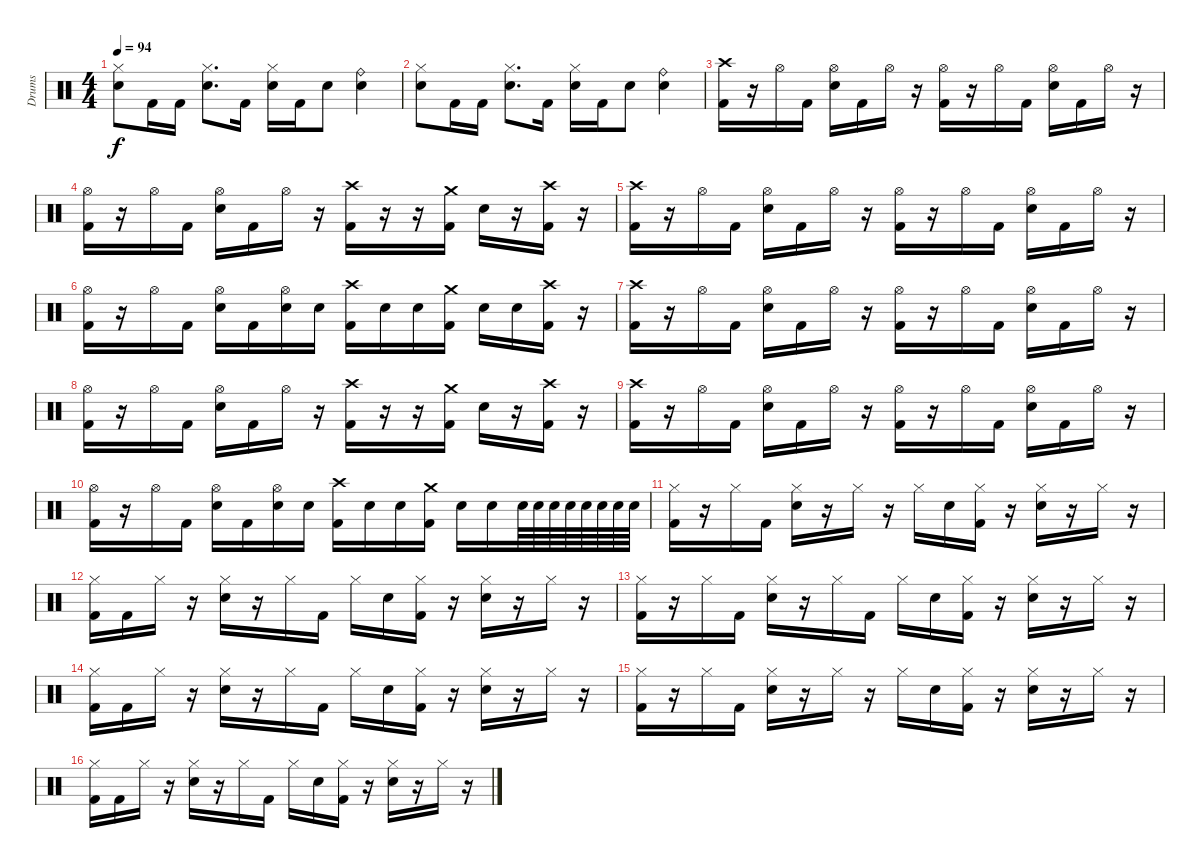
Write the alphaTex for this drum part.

\track ("Drums" "Drums") {instrument percussion}
\staff {score}
\articulation defaults
\ts (4 4)
\tempo 94
\clef neutral
\ks c
("Hi-Hat (closed)" "Snare (hit) 2").8{dy f} "Kick (hit) 2".16{balance 16} "Kick (hit) 2".16 ("Hi-Hat (closed)" "Snare (hit) 2").8{d} "Kick (hit) 2".16 ("Hi-Hat (closed)" "Snare (hit) 2").16 "Kick (hit) 2".16 "Snare (hit) 2".8 ("Ride (bell)" "Snare (hit) 2").4 |
("Hi-Hat (closed)" "Snare (hit) 2").8{balance 0} "Kick (hit) 2".16 "Kick (hit) 2".16 ("Hi-Hat (closed)" "Snare (hit) 2").8{d} "Kick (hit) 2".16 ("Hi-Hat (closed)" "Snare (hit) 2").16 "Kick (hit) 2".16 "Snare (hit) 2".8 ("Ride (bell)" "Snare (hit) 2").4 |
("Crash high (hit)" "Kick (hit) 2").16{balance 8} r.16 "Hi-Hat (open)".16 "Kick (hit) 2".16 ("Hi-Hat (open)" "Snare (hit) 2").16 "Kick (hit) 2".16 "Hi-Hat (open)".16 r.16 ("Hi-Hat (open)" "Kick (hit) 2").16 r.16 "Hi-Hat (open)".16 "Kick (hit) 2".16 ("Hi-Hat (open)" "Snare (hit) 2").16 "Kick (hit) 2".16 "Hi-Hat (open)".16 r.16 |
("Hi-Hat (open)" "Kick (hit) 2").16 r.16 "Hi-Hat (open)".16 "Kick (hit) 2".16 ("Hi-Hat (open)" "Snare (hit) 2").16 "Kick (hit) 2".16 "Hi-Hat (open)".16 r.16 ("Crash high (hit)" "Kick (hit) 2").16 r.16 r.16 ("Crash medium (hit)" "Kick (hit) 2").16 "Snare (hit) 2".16 r.16 ("Crash high (hit)" "Kick (hit) 2").16 r.16 |
("Crash high (hit)" "Kick (hit) 2").16 r.16 "Hi-Hat (open)".16 "Kick (hit) 2".16 ("Hi-Hat (open)" "Snare (hit) 2").16 "Kick (hit) 2".16 "Hi-Hat (open)".16 r.16 ("Hi-Hat (open)" "Kick (hit) 2").16 r.16 "Hi-Hat (open)".16 "Kick (hit) 2".16 ("Hi-Hat (open)" "Snare (hit) 2").16 "Kick (hit) 2".16 "Hi-Hat (open)".16 r.16 |
("Hi-Hat (open)" "Kick (hit) 2").16 r.16 "Hi-Hat (open)".16 "Kick (hit) 2".16 ("Hi-Hat (open)" "Snare (hit) 2").16 "Kick (hit) 2".16 ("Hi-Hat (open)" "Snare (hit) 2").16 "Snare (hit) 2".16 ("Crash high (hit)" "Kick (hit) 2").16 "Snare (hit) 2".16 "Snare (hit) 2".16 ("Crash medium (hit)" "Kick (hit) 2").16 "Snare (hit) 2".16 "Snare (hit) 2".16 ("Crash high (hit)" "Kick (hit) 2").16 r.16 |
("Crash high (hit)" "Kick (hit) 2").16 r.16 "Hi-Hat (open)".16 "Kick (hit) 2".16 ("Hi-Hat (open)" "Snare (hit) 2").16 "Kick (hit) 2".16 "Hi-Hat (open)".16 r.16 ("Hi-Hat (open)" "Kick (hit) 2").16 r.16 "Hi-Hat (open)".16 "Kick (hit) 2".16 ("Hi-Hat (open)" "Snare (hit) 2").16 "Kick (hit) 2".16 "Hi-Hat (open)".16 r.16 |
("Hi-Hat (open)" "Kick (hit) 2").16 r.16 "Hi-Hat (open)".16 "Kick (hit) 2".16 ("Hi-Hat (open)" "Snare (hit) 2").16 "Kick (hit) 2".16 "Hi-Hat (open)".16 r.16 ("Crash high (hit)" "Kick (hit) 2").16 r.16 r.16 ("Crash medium (hit)" "Kick (hit) 2").16 "Snare (hit) 2".16 r.16 ("Crash high (hit)" "Kick (hit) 2").16 r.16 |
("Crash high (hit)" "Kick (hit) 2").16 r.16 "Hi-Hat (open)".16 "Kick (hit) 2".16 ("Hi-Hat (open)" "Snare (hit) 2").16 "Kick (hit) 2".16 "Hi-Hat (open)".16 r.16 ("Hi-Hat (open)" "Kick (hit) 2").16 r.16 "Hi-Hat (open)".16 "Kick (hit) 2".16 ("Hi-Hat (open)" "Snare (hit) 2").16 "Kick (hit) 2".16 "Hi-Hat (open)".16 r.16 |
("Hi-Hat (open)" "Kick (hit) 2").16 r.16 "Hi-Hat (open)".16 "Kick (hit) 2".16 ("Hi-Hat (open)" "Snare (hit) 2").16 "Kick (hit) 2".16 ("Hi-Hat (open)" "Snare (hit) 2").16 "Snare (hit) 2".16 ("Crash high (hit)" "Kick (hit) 2").16 "Snare (hit) 2".16 "Snare (hit) 2".16 ("Crash medium (hit)" "Kick (hit) 2").16 "Snare (hit) 2".16 "Snare (hit) 2".16 "Snare (hit) 2".64 "Snare (hit) 2".64 "Snare (hit) 2".64 "Snare (hit) 2".64 "Snare (hit) 2".64 "Snare (hit) 2".64 "Snare (hit) 2".64 "Snare (hit) 2".64 |
("Hi-Hat (closed)" "Kick (hit) 2").16 r.16 "Hi-Hat (closed)".16 "Kick (hit) 2".16 ("Hi-Hat (closed)" "Snare (hit) 2").16 r.16 "Hi-Hat (closed)".16 r.16 "Hi-Hat (closed)".16 "Snare (hit) 2".16 ("Hi-Hat (closed)" "Kick (hit) 2").16 r.16 ("Hi-Hat (closed)" "Snare (hit) 2").16 r.16 "Hi-Hat (closed)".16 r.16 |
("Hi-Hat (closed)" "Kick (hit) 2").16 "Kick (hit) 2".16 "Hi-Hat (closed)".16 r.16 ("Hi-Hat (closed)" "Snare (hit) 2").16 r.16 "Hi-Hat (closed)".16 "Kick (hit) 2".16 "Hi-Hat (closed)".16 "Snare (hit) 2".16 ("Hi-Hat (closed)" "Kick (hit) 2").16 r.16 ("Hi-Hat (closed)" "Snare (hit) 2").16 r.16 "Hi-Hat (closed)".16 r.16 |
("Hi-Hat (closed)" "Kick (hit) 2").16 r.16 "Hi-Hat (closed)".16 "Kick (hit) 2".16 ("Hi-Hat (closed)" "Snare (hit) 2").16 r.16 "Hi-Hat (closed)".16 "Kick (hit) 2".16 "Hi-Hat (closed)".16 "Snare (hit) 2".16 ("Hi-Hat (closed)" "Kick (hit) 2").16 r.16 ("Hi-Hat (closed)" "Snare (hit) 2").16 r.16 "Hi-Hat (closed)".16 r.16 |
("Hi-Hat (closed)" "Kick (hit) 2").16 "Kick (hit) 2".16 "Hi-Hat (closed)".16 r.16 ("Hi-Hat (closed)" "Snare (hit) 2").16 r.16 "Hi-Hat (closed)".16 "Kick (hit) 2".16 "Hi-Hat (closed)".16 "Snare (hit) 2".16 ("Hi-Hat (closed)" "Kick (hit) 2").16 r.16 ("Hi-Hat (closed)" "Snare (hit) 2").16 r.16 "Hi-Hat (closed)".16 r.16 |
("Hi-Hat (closed)" "Kick (hit) 2").16 r.16 "Hi-Hat (closed)".16 "Kick (hit) 2".16 ("Hi-Hat (closed)" "Snare (hit) 2").16 r.16 "Hi-Hat (closed)".16 r.16 "Hi-Hat (closed)".16 "Snare (hit) 2".16 ("Hi-Hat (closed)" "Kick (hit) 2").16 r.16 ("Hi-Hat (closed)" "Snare (hit) 2").16 r.16 "Hi-Hat (closed)".16 r.16 |
("Hi-Hat (closed)" "Kick (hit) 2").16 "Kick (hit) 2".16 "Hi-Hat (closed)".16 r.16 ("Hi-Hat (closed)" "Snare (hit) 2").16 r.16 "Hi-Hat (closed)".16 "Kick (hit) 2".16 "Hi-Hat (closed)".16 "Snare (hit) 2".16 ("Hi-Hat (closed)" "Kick (hit) 2").16 r.16 ("Hi-Hat (closed)" "Snare (hit) 2").16 r.16 "Hi-Hat (closed)".16 r.16
